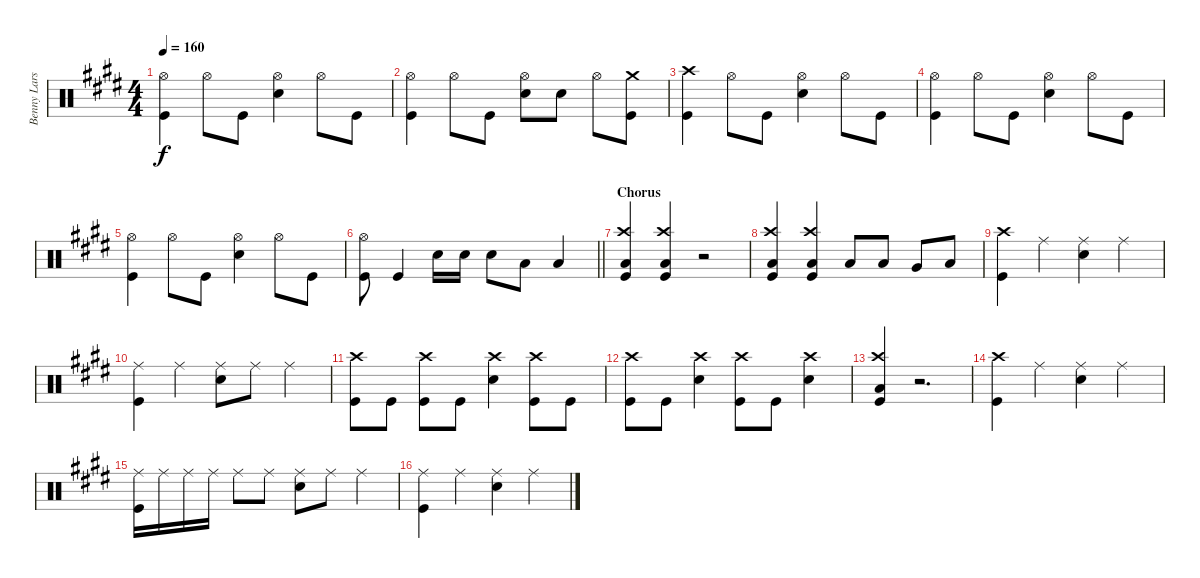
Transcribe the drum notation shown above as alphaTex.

\track ("Benny Larsson" "Benny Lars") {instrument percussion}
\staff {score}
\articulation defaults
\ts (4 4)
\tempo 160
\clef neutral
\ks e
("Hi-Hat (open)" "Kick (hit)").4{dy f} "Hi-Hat (open)".8 "Kick (hit)".8 ("Hi-Hat (open)" "Snare (hit) 2").4 "Hi-Hat (open)".8 "Kick (hit)".8 |
("Hi-Hat (open)" "Kick (hit)").4 "Hi-Hat (open)".8 "Kick (hit)".8 ("Hi-Hat (open)" "Snare (hit) 2").8 "Snare (hit) 2".8 "Hi-Hat (open)".8 ("Crash medium (hit)" "Kick (hit)").8 |
("Crash high (hit)" "Kick (hit)").4 "Hi-Hat (open)".8 "Kick (hit)".8 ("Hi-Hat (open)" "Snare (hit) 2").4 "Hi-Hat (open)".8 "Kick (hit)".8 |
("Hi-Hat (open)" "Kick (hit)").4 "Hi-Hat (open)".8 "Kick (hit)".8 ("Hi-Hat (open)" "Snare (hit) 2").4 "Hi-Hat (open)".8 "Kick (hit)".8 |
("Hi-Hat (open)" "Kick (hit)").4 "Hi-Hat (open)".8 "Kick (hit)".8 ("Hi-Hat (open)" "Snare (hit) 2").4 "Hi-Hat (open)".8 "Kick (hit)".8 |
\barLineRight lightlight
("Hi-Hat (open)" "Kick (hit)").8 "Kick (hit)".4 "Snare (hit) 2".16 "Snare (hit) 2".16 "Snare (hit) 2".8 "Low Tom (hit)".8 "Low Tom (hit)".4 |
\section ("" "Chorus")
("Crash high (hit)" "Low Floor Tom (hit)" "Kick (hit)").4 ("Crash high (hit)" "Low Floor Tom (hit)" "Kick (hit)").4 r.2 |
("Crash high (hit)" "Low Floor Tom (hit)" "Kick (hit)").4 ("Crash high (hit)" "Low Floor Tom (hit)" "Kick (hit)").4 "Low Floor Tom (hit)".8 "Low Floor Tom (hit)".8 "Very Low Tom (hit)".8 "Low Tom (hit)".8 |
("Crash high (hit)" "Kick (hit)").4 "Ride (middle)".4 ("Ride (middle)" "Snare (hit) 2").4 "Ride (middle)".4 |
("Ride (middle)" "Kick (hit)").4 "Ride (middle)".4 ("Ride (middle)" "Snare (hit) 2").8 "Ride (middle)".8 "Ride (middle)".4 |
("Crash high (hit)" "Kick (hit)").8 "Kick (hit)".8 ("Crash high (hit)" "Kick (hit)").8 "Kick (hit)".8 ("Crash high (hit)" "Snare (hit) 2").4 ("Crash high (hit)" "Kick (hit)").8 "Kick (hit)".8 |
("Crash high (hit)" "Kick (hit)").8 "Kick (hit)".8 ("Crash high (hit)" "Snare (hit) 2").4 ("Crash high (hit)" "Kick (hit)").8 "Kick (hit)".8 ("Crash high (hit)" "Snare (hit) 2").4 |
("Crash high (hit)" "Low Floor Tom (hit)" "Kick (hit)").4 r.2{d} |
("Crash high (hit)" "Kick (hit)").4 "Ride (middle)".4 ("Ride (middle)" "Snare (hit) 2").4 "Ride (middle)".4 |
("Ride (middle)" "Kick (hit)").16 "Ride (middle)".16 "Ride (middle)".16 "Ride (middle)".16 "Ride (middle)".8 "Ride (middle)".8 ("Ride (middle)" "Snare (hit) 2").8 "Ride (middle)".8 "Ride (middle)".4 |
("Ride (middle)" "Kick (hit)").4 "Ride (middle)".4 ("Ride (middle)" "Snare (hit) 2").4 "Ride (middle)".4
